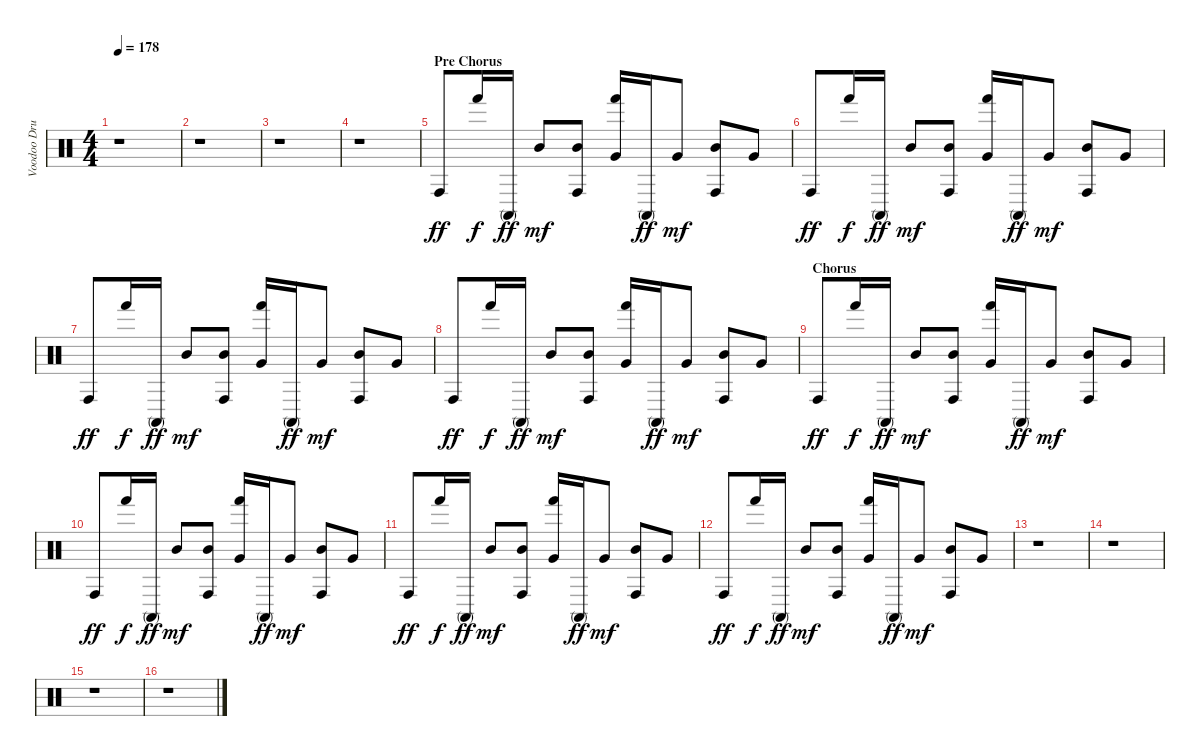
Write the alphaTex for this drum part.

\track ("Voodoo Drums" "Voodoo Dru") {instrument percussion}
\staff {score}
\articulation defaults
\ts (4 4)
\tempo 178
\clef neutral
\ks c
r.1{dy mf} |
r.1 |
r.1 |
r.1 |
\section ("" "Pre Chorus")
"Conga high (hit)".8{dy ff} "Hand (hit)".16{dy f} "Conga high (mute)".16{dy ff} "Mid Tom (hit)".8{dy mf} ("Conga high (hit)" "Mid Tom (hit)").8 ("Hand (hit)" "Very Low Tom (hit)").16 "Conga high (mute)".16{dy ff} "Very Low Tom (hit)".8{dy mf} ("Conga high (hit)" "Mid Tom (hit)").8 "Very Low Tom (hit)".8 |
"Conga high (hit)".8{dy ff} "Hand (hit)".16{dy f} "Conga high (mute)".16{dy ff} "Mid Tom (hit)".8{dy mf} ("Conga high (hit)" "Mid Tom (hit)").8 ("Hand (hit)" "Very Low Tom (hit)").16 "Conga high (mute)".16{dy ff} "Very Low Tom (hit)".8{dy mf} ("Conga high (hit)" "Mid Tom (hit)").8 "Very Low Tom (hit)".8 |
"Conga high (hit)".8{dy ff} "Hand (hit)".16{dy f} "Conga high (mute)".16{dy ff} "Mid Tom (hit)".8{dy mf} ("Conga high (hit)" "Mid Tom (hit)").8 ("Hand (hit)" "Very Low Tom (hit)").16 "Conga high (mute)".16{dy ff} "Very Low Tom (hit)".8{dy mf} ("Conga high (hit)" "Mid Tom (hit)").8 "Very Low Tom (hit)".8 |
"Conga high (hit)".8{dy ff} "Hand (hit)".16{dy f} "Conga high (mute)".16{dy ff} "Mid Tom (hit)".8{dy mf} ("Conga high (hit)" "Mid Tom (hit)").8 ("Hand (hit)" "Very Low Tom (hit)").16 "Conga high (mute)".16{dy ff} "Very Low Tom (hit)".8{dy mf} ("Conga high (hit)" "Mid Tom (hit)").8 "Very Low Tom (hit)".8 |
\section ("" "Chorus")
"Conga high (hit)".8{dy ff} "Hand (hit)".16{dy f} "Conga high (mute)".16{dy ff} "Mid Tom (hit)".8{dy mf} ("Conga high (hit)" "Mid Tom (hit)").8 ("Hand (hit)" "Very Low Tom (hit)").16 "Conga high (mute)".16{dy ff} "Very Low Tom (hit)".8{dy mf} ("Conga high (hit)" "Mid Tom (hit)").8 "Very Low Tom (hit)".8 |
"Conga high (hit)".8{dy ff} "Hand (hit)".16{dy f} "Conga high (mute)".16{dy ff} "Mid Tom (hit)".8{dy mf} ("Conga high (hit)" "Mid Tom (hit)").8 ("Hand (hit)" "Very Low Tom (hit)").16 "Conga high (mute)".16{dy ff} "Very Low Tom (hit)".8{dy mf} ("Conga high (hit)" "Mid Tom (hit)").8 "Very Low Tom (hit)".8 |
"Conga high (hit)".8{dy ff} "Hand (hit)".16{dy f} "Conga high (mute)".16{dy ff} "Mid Tom (hit)".8{dy mf} ("Conga high (hit)" "Mid Tom (hit)").8 ("Hand (hit)" "Very Low Tom (hit)").16 "Conga high (mute)".16{dy ff} "Very Low Tom (hit)".8{dy mf} ("Conga high (hit)" "Mid Tom (hit)").8 "Very Low Tom (hit)".8 |
"Conga high (hit)".8{dy ff} "Hand (hit)".16{dy f} "Conga high (mute)".16{dy ff} "Mid Tom (hit)".8{dy mf} ("Conga high (hit)" "Mid Tom (hit)").8 ("Hand (hit)" "Very Low Tom (hit)").16 "Conga high (mute)".16{dy ff} "Very Low Tom (hit)".8{dy mf} ("Conga high (hit)" "Mid Tom (hit)").8 "Very Low Tom (hit)".8 |
r.1 |
r.1 |
r.1 |
r.1
